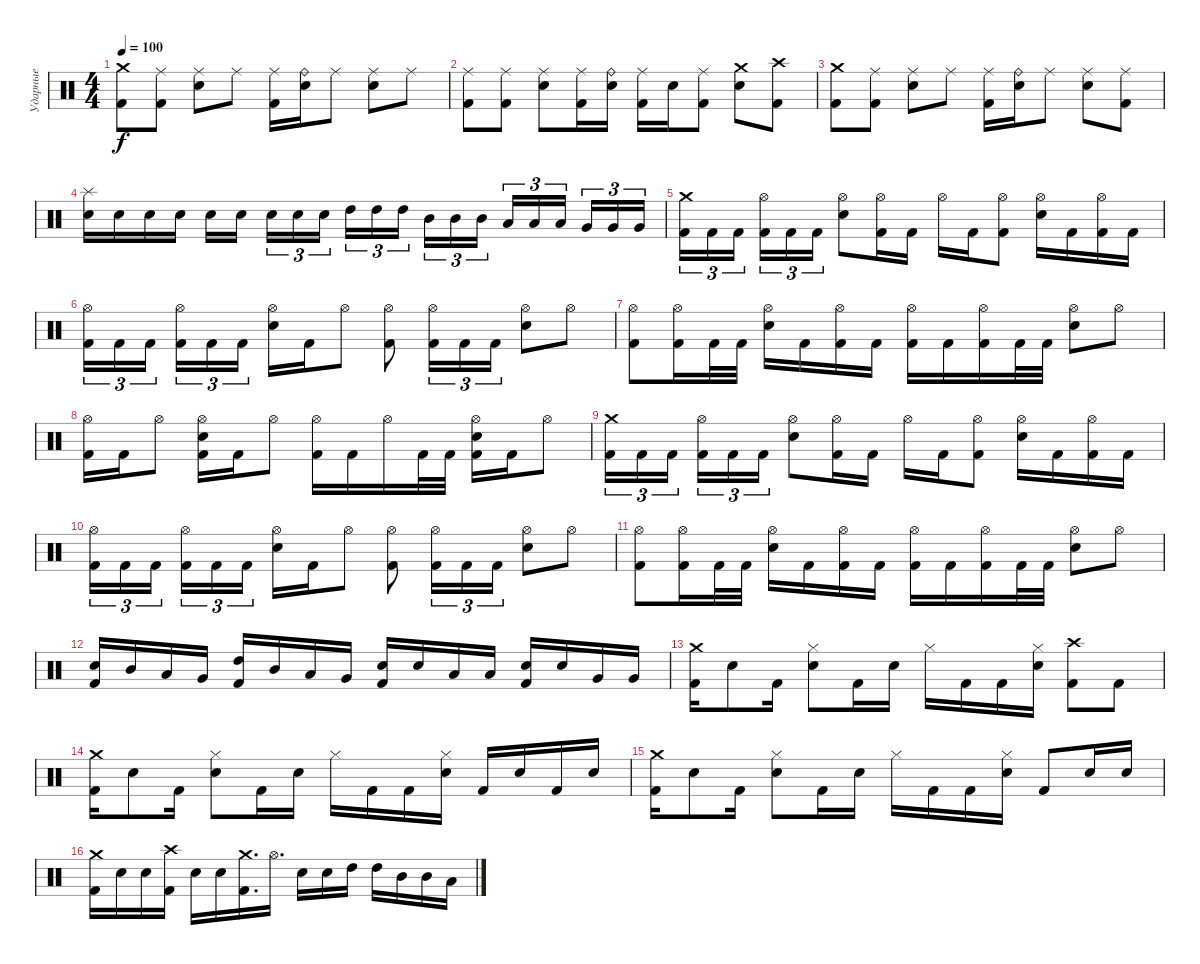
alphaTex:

\track ("Ударные" "Ударные") {instrument percussion}
\staff {score}
\articulation defaults
\ts (4 4)
\tempo 100
\clef neutral
\ks c
("Crash medium (hit)" "Kick (hit) 2").8{dy f} ("Ride (middle)" "Kick (hit) 2").8 ("Ride (middle)" "Electric Snare (hit)").8 "Ride (middle)".8 ("Ride (middle)" "Kick (hit) 2").16 ("Ride (bell)" "Electric Snare (hit)").16 "Ride (middle)".8 ("Ride (middle)" "Electric Snare (hit)").8 "Ride (middle)".8 |
("Ride (middle)" "Kick (hit) 2").8 ("Ride (middle)" "Kick (hit) 2").8 ("Ride (middle)" "Electric Snare (hit)").8 ("Ride (middle)" "Kick (hit) 2").16 ("Ride (bell)" "Electric Snare (hit)").16 ("Ride (middle)" "Kick (hit) 2").16 "Electric Snare (hit)".16 ("Ride (middle)" "Kick (hit) 2").8 ("Crash medium (hit)" "Electric Snare (hit)").8 ("Crash high (hit)" "Kick (hit) 2").8 |
("Crash medium (hit)" "Kick (hit) 2").8 ("Ride (middle)" "Kick (hit) 2").8 ("Ride (middle)" "Electric Snare (hit)").8 "Ride (middle)".8 ("Ride (middle)" "Kick (hit) 2").16 ("Ride (bell)" "Electric Snare (hit)").16 "Ride (middle)".8 ("Ride (middle)" "Electric Snare (hit)").8 ("Ride (middle)" "Kick (hit) 2").8 |
("Splash (hit)" "Electric Snare (hit)").16 "Electric Snare (hit)".16 "Electric Snare (hit)".16 "Electric Snare (hit)".16 "Electric Snare (hit)".16 "Electric Snare (hit)".16{beam splitsecondary} "Electric Snare (hit)".16{tu (3 2)} "Electric Snare (hit)".16{tu (3 2)} "Electric Snare (hit)".16{tu (3 2)} "High Tom (hit)".16{tu (3 2)} "High Tom (hit)".16{tu (3 2)} "High Tom (hit)".16{tu (3 2) beam splitsecondary} "Mid Tom (hit)".16{tu (3 2)} "Mid Tom (hit)".16{tu (3 2)} "Mid Tom (hit)".16{tu (3 2)} "Low Tom (hit)".16{tu (3 2)} "Low Tom (hit)".16{tu (3 2)} "Low Tom (hit)".16{tu (3 2) beam splitsecondary} "Very Low Tom (hit)".16{tu (3 2)} "Very Low Tom (hit)".16{tu (3 2)} "Very Low Tom (hit)".16{tu (3 2)} |
("Crash medium (hit)" "Kick (hit) 2").16{tu (3 2)} "Kick (hit) 2".16{tu (3 2)} "Kick (hit) 2".16{tu (3 2) beam splitsecondary} ("Hi-Hat (open)" "Kick (hit) 2").16{tu (3 2)} "Kick (hit) 2".16{tu (3 2)} "Kick (hit) 2".16{tu (3 2)} ("Hi-Hat (open)" "Electric Snare (hit)").8 ("Hi-Hat (open)" "Kick (hit) 2").16 "Kick (hit) 2".16 "Hi-Hat (open)".16 "Kick (hit) 2".16 ("Hi-Hat (open)" "Kick (hit) 2").8 ("Hi-Hat (open)" "Electric Snare (hit)").16 "Kick (hit) 2".16 ("Hi-Hat (open)" "Kick (hit) 2").16 "Kick (hit) 2".16 |
("Hi-Hat (open)" "Kick (hit) 2").16{tu (3 2)} "Kick (hit) 2".16{tu (3 2)} "Kick (hit) 2".16{tu (3 2) beam splitsecondary} ("Hi-Hat (open)" "Kick (hit) 2").16{tu (3 2)} "Kick (hit) 2".16{tu (3 2)} "Kick (hit) 2".16{tu (3 2)} ("Hi-Hat (open)" "Electric Snare (hit)").16 "Kick (hit) 2".16 "Hi-Hat (open)".8 ("Hi-Hat (open)" "Kick (hit) 2").8 ("Hi-Hat (open)" "Kick (hit) 2").16{tu (3 2)} "Kick (hit) 2".16{tu (3 2)} "Kick (hit) 2".16{tu (3 2)} ("Hi-Hat (open)" "Electric Snare (hit)").8 "Hi-Hat (open)".8 |
("Hi-Hat (open)" "Kick (hit) 2").8 ("Hi-Hat (open)" "Kick (hit) 2").16 "Kick (hit) 2".32 "Kick (hit) 2".32 ("Hi-Hat (open)" "Electric Snare (hit)").16 "Kick (hit) 2".16 ("Hi-Hat (open)" "Kick (hit) 2").16 "Kick (hit) 2".16 ("Hi-Hat (open)" "Kick (hit) 2").16 "Kick (hit) 2".16 ("Hi-Hat (open)" "Kick (hit) 2").16 "Kick (hit) 2".32 "Kick (hit) 2".32 ("Hi-Hat (open)" "Electric Snare (hit)").8 "Hi-Hat (open)".8 |
("Hi-Hat (open)" "Kick (hit) 2").16 "Kick (hit) 2".16 "Hi-Hat (open)".8 ("Hi-Hat (open)" "Electric Snare (hit)" "Kick (hit) 2").16 "Kick (hit) 2".16 "Hi-Hat (open)".8 ("Hi-Hat (open)" "Kick (hit) 2").16 "Kick (hit) 2".16 "Hi-Hat (open)".16 "Kick (hit) 2".32 "Kick (hit) 2".32 ("Hi-Hat (open)" "Electric Snare (hit)" "Kick (hit) 2").16 "Kick (hit) 2".16 "Hi-Hat (open)".8 |
("Crash medium (hit)" "Kick (hit) 2").16{tu (3 2)} "Kick (hit) 2".16{tu (3 2)} "Kick (hit) 2".16{tu (3 2) beam splitsecondary} ("Hi-Hat (open)" "Kick (hit) 2").16{tu (3 2)} "Kick (hit) 2".16{tu (3 2)} "Kick (hit) 2".16{tu (3 2)} ("Hi-Hat (open)" "Electric Snare (hit)").8 ("Hi-Hat (open)" "Kick (hit) 2").16 "Kick (hit) 2".16 "Hi-Hat (open)".16 "Kick (hit) 2".16 ("Hi-Hat (open)" "Kick (hit) 2").8 ("Hi-Hat (open)" "Electric Snare (hit)").16 "Kick (hit) 2".16 ("Hi-Hat (open)" "Kick (hit) 2").16 "Kick (hit) 2".16 |
("Hi-Hat (open)" "Kick (hit) 2").16{tu (3 2)} "Kick (hit) 2".16{tu (3 2)} "Kick (hit) 2".16{tu (3 2) beam splitsecondary} ("Hi-Hat (open)" "Kick (hit) 2").16{tu (3 2)} "Kick (hit) 2".16{tu (3 2)} "Kick (hit) 2".16{tu (3 2)} ("Hi-Hat (open)" "Electric Snare (hit)").16 "Kick (hit) 2".16 "Hi-Hat (open)".8 ("Hi-Hat (open)" "Kick (hit) 2").8 ("Hi-Hat (open)" "Kick (hit) 2").16{tu (3 2)} "Kick (hit) 2".16{tu (3 2)} "Kick (hit) 2".16{tu (3 2)} ("Hi-Hat (open)" "Electric Snare (hit)").8 "Hi-Hat (open)".8 |
("Hi-Hat (open)" "Kick (hit) 2").8 ("Hi-Hat (open)" "Kick (hit) 2").16 "Kick (hit) 2".32 "Kick (hit) 2".32 ("Hi-Hat (open)" "Electric Snare (hit)").16 "Kick (hit) 2".16 ("Hi-Hat (open)" "Kick (hit) 2").16 "Kick (hit) 2".16 ("Hi-Hat (open)" "Kick (hit) 2").16 "Kick (hit) 2".16 ("Hi-Hat (open)" "Kick (hit) 2").16 "Kick (hit) 2".32 "Kick (hit) 2".32 ("Hi-Hat (open)" "Electric Snare (hit)").8 "Hi-Hat (open)".8 |
("Electric Snare (hit)" "Kick (hit) 2").16 "Mid Tom (hit)".16 "Low Tom (hit)".16 "Very Low Tom (hit)".16 ("High Tom (hit)" "Kick (hit) 2").16 "Mid Tom (hit)".16 "Low Tom (hit)".16 "Very Low Tom (hit)".16 ("Electric Snare (hit)" "Kick (hit) 2").16 "Electric Snare (hit)".16 "Low Tom (hit)".16 "Low Tom (hit)".16 ("Electric Snare (hit)" "Kick (hit) 2").16 "Electric Snare (hit)".16 "Very Low Tom (hit)".16 "Very Low Tom (hit)".16 |
("Crash medium (hit)" "Kick (hit) 2").16 "Electric Snare (hit)".8 "Kick (hit) 2".16 ("Hi-Hat (closed)" "Electric Snare (hit)").8 "Kick (hit) 2".16 "Electric Snare (hit)".16 "Hi-Hat (closed)".16 "Kick (hit) 2".16 "Kick (hit) 2".16 ("Hi-Hat (closed)" "Electric Snare (hit)").16 ("Crash high (hit)" "Kick (hit) 2").8 "Kick (hit) 2".8 |
("Crash medium (hit)" "Kick (hit) 2").16 "Electric Snare (hit)".8 "Kick (hit) 2".16 ("Hi-Hat (closed)" "Electric Snare (hit)").8 "Kick (hit) 2".16 "Electric Snare (hit)".16 "Hi-Hat (closed)".16 "Kick (hit) 2".16 "Kick (hit) 2".16 ("Hi-Hat (closed)" "Electric Snare (hit)").16 "Kick (hit) 2".16 "Electric Snare (hit)".16 "Kick (hit) 2".16 "Electric Snare (hit)".16 |
("Crash medium (hit)" "Kick (hit) 2").16 "Electric Snare (hit)".8 "Kick (hit) 2".16 ("Hi-Hat (closed)" "Electric Snare (hit)").8 "Kick (hit) 2".16 "Electric Snare (hit)".16 "Hi-Hat (closed)".16 "Kick (hit) 2".16 "Kick (hit) 2".16 ("Hi-Hat (closed)" "Electric Snare (hit)").16 "Kick (hit) 2".8 "Electric Snare (hit)".16 "Electric Snare (hit)".16 |
("Crash medium (hit)" "Kick (hit) 2").16 "Electric Snare (hit)".16 "Electric Snare (hit)".16 ("Crash high (hit)" "Kick (hit) 2").16 "Electric Snare (hit)".16 "Electric Snare (hit)".16 ("Crash medium (hit)" "Kick (hit) 2").16{d} "Hi-Hat (open)".16{d} "Electric Snare (hit)".16 "Electric Snare (hit)".16 "High Tom (hit)".16 "High Tom (hit)".16 "Mid Tom (hit)".16 "Mid Tom (hit)".16 "Low Tom (hit)".16
